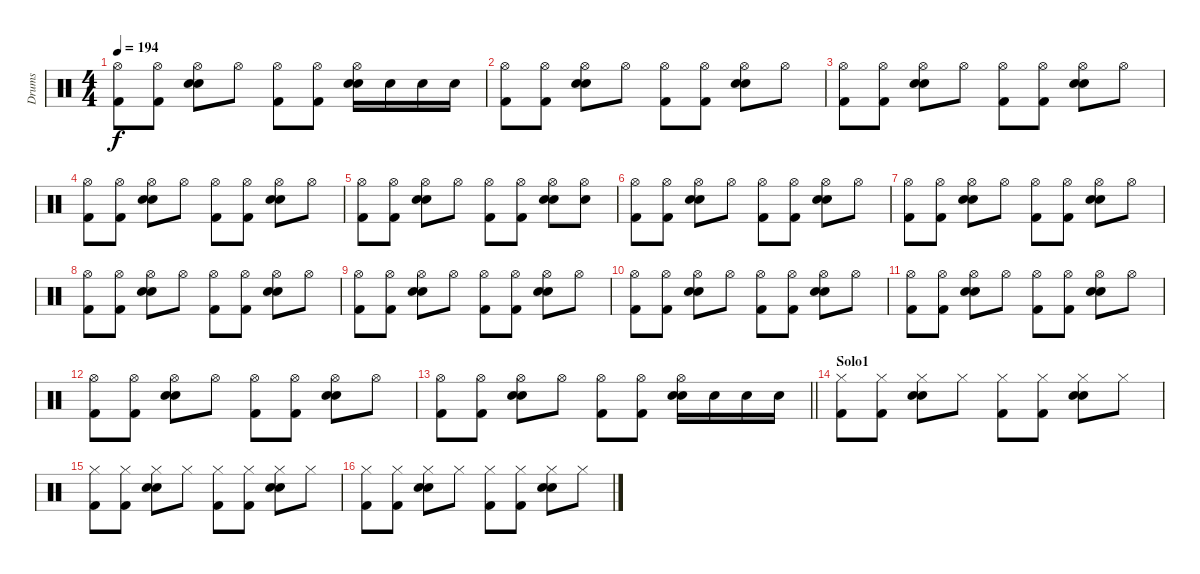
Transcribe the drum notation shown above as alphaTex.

\track ("Drums" "Drums") {solo instrument percussion}
\staff {score}
\articulation defaults
\ts (4 4)
\tempo 194
\clef neutral
\ks c
("Hi-Hat (open)" "Kick (hit) 2").8{dy f} ("Hi-Hat (open)" "Kick (hit) 2").8 ("Hi-Hat (open)" "Electric Snare (hit)" "Snare (hit) 2").8 "Hi-Hat (open)".8 ("Hi-Hat (open)" "Kick (hit) 2").8 ("Hi-Hat (open)" "Kick (hit) 2").8 ("Hi-Hat (open)" "Electric Snare (hit)" "Snare (hit) 2").16 "Snare (hit) 2".16 "Snare (hit) 2".16 "Snare (hit) 2".16 |
("Hi-Hat (open)" "Kick (hit) 2").8 ("Hi-Hat (open)" "Kick (hit) 2").8 ("Hi-Hat (open)" "Electric Snare (hit)" "Snare (hit) 2").8 "Hi-Hat (open)".8 ("Hi-Hat (open)" "Kick (hit) 2").8 ("Hi-Hat (open)" "Kick (hit) 2").8 ("Hi-Hat (open)" "Electric Snare (hit)" "Snare (hit) 2").8 "Hi-Hat (open)".8 |
("Hi-Hat (open)" "Kick (hit) 2").8 ("Hi-Hat (open)" "Kick (hit) 2").8 ("Hi-Hat (open)" "Electric Snare (hit)" "Snare (hit) 2").8 "Hi-Hat (open)".8 ("Hi-Hat (open)" "Kick (hit) 2").8 ("Hi-Hat (open)" "Kick (hit) 2").8 ("Hi-Hat (open)" "Electric Snare (hit)" "Snare (hit) 2").8 "Hi-Hat (open)".8 |
("Hi-Hat (open)" "Kick (hit) 2").8 ("Hi-Hat (open)" "Kick (hit) 2").8 ("Hi-Hat (open)" "Electric Snare (hit)" "Snare (hit) 2").8 "Hi-Hat (open)".8 ("Hi-Hat (open)" "Kick (hit) 2").8 ("Hi-Hat (open)" "Kick (hit) 2").8 ("Hi-Hat (open)" "Electric Snare (hit)" "Snare (hit) 2").8 "Hi-Hat (open)".8 |
("Hi-Hat (open)" "Kick (hit) 2").8 ("Hi-Hat (open)" "Kick (hit) 2").8 ("Hi-Hat (open)" "Electric Snare (hit)" "Snare (hit) 2").8 "Hi-Hat (open)".8 ("Hi-Hat (open)" "Kick (hit) 2").8 ("Hi-Hat (open)" "Kick (hit) 2").8 ("Hi-Hat (open)" "Electric Snare (hit)" "Snare (hit) 2").8 ("Hi-Hat (open)" "Snare (hit) 2").8 |
("Hi-Hat (open)" "Kick (hit) 2").8 ("Hi-Hat (open)" "Kick (hit) 2").8 ("Hi-Hat (open)" "Electric Snare (hit)" "Snare (hit) 2").8 "Hi-Hat (open)".8 ("Hi-Hat (open)" "Kick (hit) 2").8 ("Hi-Hat (open)" "Kick (hit) 2").8 ("Hi-Hat (open)" "Electric Snare (hit)" "Snare (hit) 2").8 "Hi-Hat (open)".8 |
("Hi-Hat (open)" "Kick (hit) 2").8 ("Hi-Hat (open)" "Kick (hit) 2").8 ("Hi-Hat (open)" "Electric Snare (hit)" "Snare (hit) 2").8 "Hi-Hat (open)".8 ("Hi-Hat (open)" "Kick (hit) 2").8 ("Hi-Hat (open)" "Kick (hit) 2").8 ("Hi-Hat (open)" "Electric Snare (hit)" "Snare (hit) 2").8 "Hi-Hat (open)".8 |
("Hi-Hat (open)" "Kick (hit) 2").8 ("Hi-Hat (open)" "Kick (hit) 2").8 ("Hi-Hat (open)" "Electric Snare (hit)" "Snare (hit) 2").8 "Hi-Hat (open)".8 ("Hi-Hat (open)" "Kick (hit) 2").8 ("Hi-Hat (open)" "Kick (hit) 2").8 ("Hi-Hat (open)" "Electric Snare (hit)" "Snare (hit) 2").8 "Hi-Hat (open)".8 |
("Hi-Hat (open)" "Kick (hit) 2").8 ("Hi-Hat (open)" "Kick (hit) 2").8 ("Hi-Hat (open)" "Electric Snare (hit)" "Snare (hit) 2").8 "Hi-Hat (open)".8 ("Hi-Hat (open)" "Kick (hit) 2").8 ("Hi-Hat (open)" "Kick (hit) 2").8 ("Hi-Hat (open)" "Electric Snare (hit)" "Snare (hit) 2").8 "Hi-Hat (open)".8 |
("Hi-Hat (open)" "Kick (hit) 2").8 ("Hi-Hat (open)" "Kick (hit) 2").8 ("Hi-Hat (open)" "Electric Snare (hit)" "Snare (hit) 2").8 "Hi-Hat (open)".8 ("Hi-Hat (open)" "Kick (hit) 2").8 ("Hi-Hat (open)" "Kick (hit) 2").8 ("Hi-Hat (open)" "Electric Snare (hit)" "Snare (hit) 2").8 "Hi-Hat (open)".8 |
("Hi-Hat (open)" "Kick (hit) 2").8 ("Hi-Hat (open)" "Kick (hit) 2").8 ("Hi-Hat (open)" "Electric Snare (hit)" "Snare (hit) 2").8 "Hi-Hat (open)".8 ("Hi-Hat (open)" "Kick (hit) 2").8 ("Hi-Hat (open)" "Kick (hit) 2").8 ("Hi-Hat (open)" "Electric Snare (hit)" "Snare (hit) 2").8 "Hi-Hat (open)".8 |
("Hi-Hat (open)" "Kick (hit) 2").8 ("Hi-Hat (open)" "Kick (hit) 2").8 ("Hi-Hat (open)" "Electric Snare (hit)" "Snare (hit) 2").8 "Hi-Hat (open)".8 ("Hi-Hat (open)" "Kick (hit) 2").8 ("Hi-Hat (open)" "Kick (hit) 2").8 ("Hi-Hat (open)" "Electric Snare (hit)" "Snare (hit) 2").8 "Hi-Hat (open)".8 |
\barLineRight lightlight
("Hi-Hat (open)" "Kick (hit) 2").8 ("Hi-Hat (open)" "Kick (hit) 2").8 ("Hi-Hat (open)" "Electric Snare (hit)" "Snare (hit) 2").8 "Hi-Hat (open)".8 ("Hi-Hat (open)" "Kick (hit) 2").8 ("Hi-Hat (open)" "Kick (hit) 2").8 ("Hi-Hat (open)" "Electric Snare (hit)" "Snare (hit) 2").16 "Snare (hit) 2".16 "Snare (hit) 2".16 "Snare (hit) 2".16 |
\section ("" "Solo1")
("Hi-Hat (closed)" "Kick (hit) 2").8 ("Hi-Hat (closed)" "Kick (hit) 2").8 ("Hi-Hat (closed)" "Electric Snare (hit)" "Snare (hit) 2").8 "Hi-Hat (closed)".8 ("Hi-Hat (closed)" "Kick (hit) 2").8 ("Hi-Hat (closed)" "Kick (hit) 2").8 ("Hi-Hat (closed)" "Electric Snare (hit)" "Snare (hit) 2").8 "Hi-Hat (closed)".8 |
("Hi-Hat (closed)" "Kick (hit) 2").8 ("Hi-Hat (closed)" "Kick (hit) 2").8 ("Hi-Hat (closed)" "Electric Snare (hit)" "Snare (hit) 2").8 "Hi-Hat (closed)".8 ("Hi-Hat (closed)" "Kick (hit) 2").8 ("Hi-Hat (closed)" "Kick (hit) 2").8 ("Hi-Hat (closed)" "Electric Snare (hit)" "Snare (hit) 2").8 "Hi-Hat (closed)".8 |
("Hi-Hat (closed)" "Kick (hit) 2").8 ("Hi-Hat (closed)" "Kick (hit) 2").8 ("Hi-Hat (closed)" "Electric Snare (hit)" "Snare (hit) 2").8 "Hi-Hat (closed)".8 ("Hi-Hat (closed)" "Kick (hit) 2").8 ("Hi-Hat (closed)" "Kick (hit) 2").8 ("Hi-Hat (closed)" "Electric Snare (hit)" "Snare (hit) 2").8 "Hi-Hat (closed)".8
